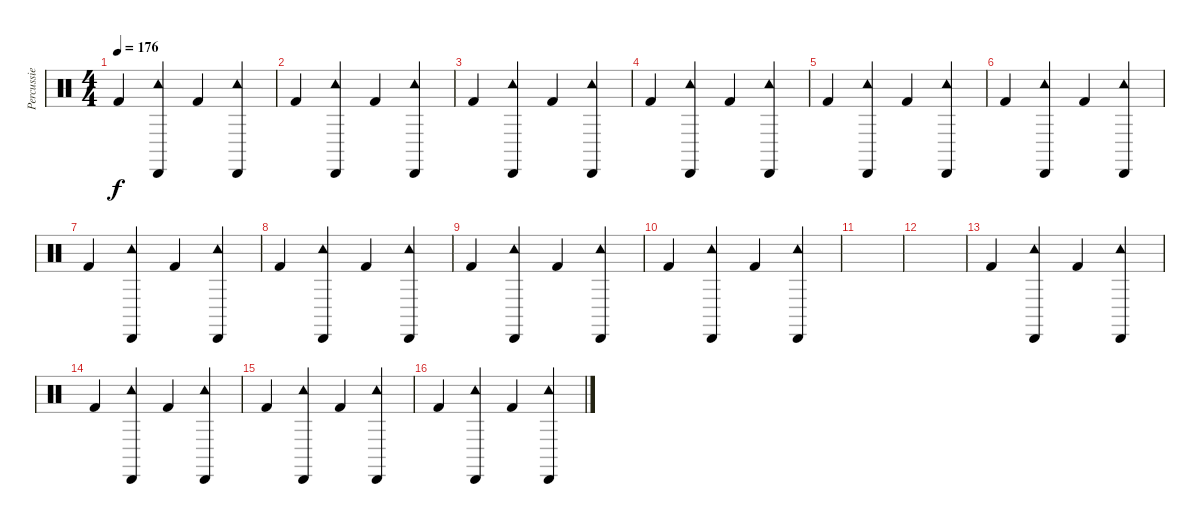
\track ("Percussie" "Percussie") {instrument percussion}
\staff {score}
\articulation defaults
\ts (4 4)
\tempo 176
\clef neutral
\ks c "Kick (hit) 2".4{dy f}
("Cabasa (hit)" "Tambourine (hit)").4 "Kick (hit) 2".4 ("Cabasa (hit)" "Tambourine (hit)").4 |
"Kick (hit) 2".4 ("Cabasa (hit)" "Tambourine (hit)").4 "Kick (hit) 2".4 ("Cabasa (hit)" "Tambourine (hit)").4 |
"Kick (hit) 2".4 ("Cabasa (hit)" "Tambourine (hit)").4 "Kick (hit) 2".4 ("Cabasa (hit)" "Tambourine (hit)").4 |
"Kick (hit) 2".4 ("Cabasa (hit)" "Tambourine (hit)").4 "Kick (hit) 2".4 ("Cabasa (hit)" "Tambourine (hit)").4 |
"Kick (hit) 2".4 ("Cabasa (hit)" "Tambourine (hit)").4 "Kick (hit) 2".4 ("Cabasa (hit)" "Tambourine (hit)").4 |
"Kick (hit) 2".4 ("Cabasa (hit)" "Tambourine (hit)").4 "Kick (hit) 2".4 ("Cabasa (hit)" "Tambourine (hit)").4 |
"Kick (hit) 2".4 ("Cabasa (hit)" "Tambourine (hit)").4 "Kick (hit) 2".4 ("Cabasa (hit)" "Tambourine (hit)").4 |
"Kick (hit) 2".4 ("Cabasa (hit)" "Tambourine (hit)").4 "Kick (hit) 2".4 ("Cabasa (hit)" "Tambourine (hit)").4 |
"Kick (hit) 2".4 ("Cabasa (hit)" "Tambourine (hit)").4 "Kick (hit) 2".4 ("Cabasa (hit)" "Tambourine (hit)").4 |
"Kick (hit) 2".4 ("Cabasa (hit)" "Tambourine (hit)").4 "Kick (hit) 2".4 ("Cabasa (hit)" "Tambourine (hit)").4 |
|
|
"Kick (hit) 2".4 ("Cabasa (hit)" "Tambourine (hit)").4 "Kick (hit) 2".4 ("Cabasa (hit)" "Tambourine (hit)").4 |
"Kick (hit) 2".4 ("Cabasa (hit)" "Tambourine (hit)").4 "Kick (hit) 2".4 ("Cabasa (hit)" "Tambourine (hit)").4 |
"Kick (hit) 2".4 ("Cabasa (hit)" "Tambourine (hit)").4 "Kick (hit) 2".4 ("Cabasa (hit)" "Tambourine (hit)").4 |
"Kick (hit) 2".4 ("Cabasa (hit)" "Tambourine (hit)").4 "Kick (hit) 2".4 ("Cabasa (hit)" "Tambourine (hit)").4
